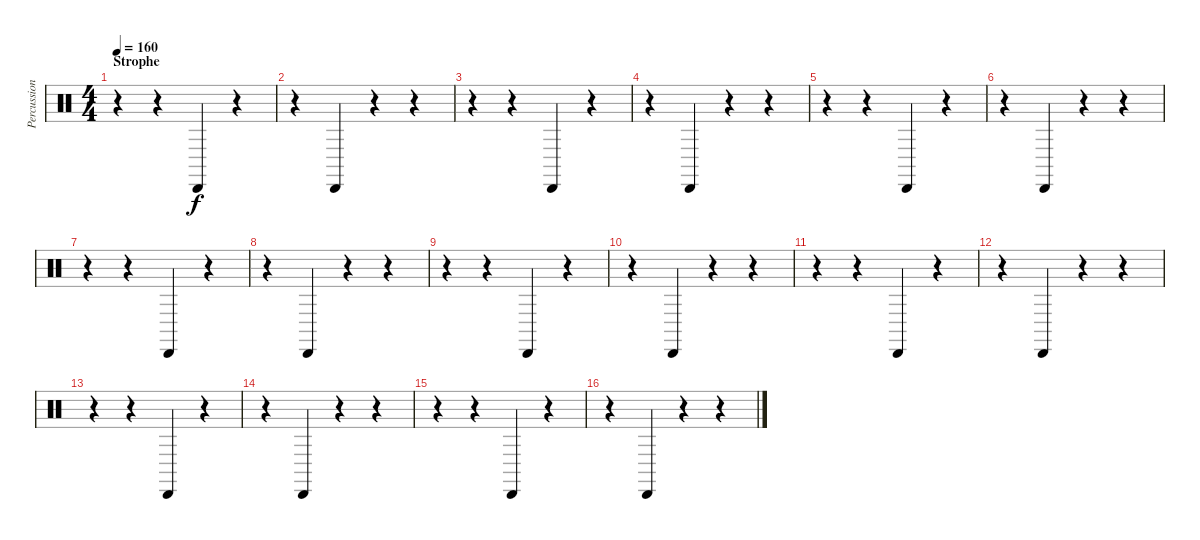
\track ("Percussion" "Percussion") {instrument percussion}
\staff {score}
\articulation defaults
\ts (4 4)
\section ("" "Strophe")
\tempo 160
\clef neutral
\ks c
r.4{dy f} r.4 "Cabasa (hit)".4 r.4 |
r.4 "Cabasa (hit)".4 r.4 r.4 |
r.4 r.4 "Cabasa (hit)".4 r.4 |
r.4 "Cabasa (hit)".4 r.4 r.4 |
r.4 r.4 "Cabasa (hit)".4 r.4 |
r.4 "Cabasa (hit)".4 r.4 r.4 |
r.4 r.4 "Cabasa (hit)".4 r.4 |
r.4 "Cabasa (hit)".4 r.4 r.4 |
r.4 r.4 "Cabasa (hit)".4 r.4 |
r.4 "Cabasa (hit)".4 r.4 r.4 |
r.4 r.4 "Cabasa (hit)".4 r.4 |
r.4 "Cabasa (hit)".4 r.4 r.4 |
r.4 r.4 "Cabasa (hit)".4 r.4 |
r.4 "Cabasa (hit)".4 r.4 r.4 |
r.4 r.4 "Cabasa (hit)".4 r.4 |
r.4 "Cabasa (hit)".4 r.4 r.4
